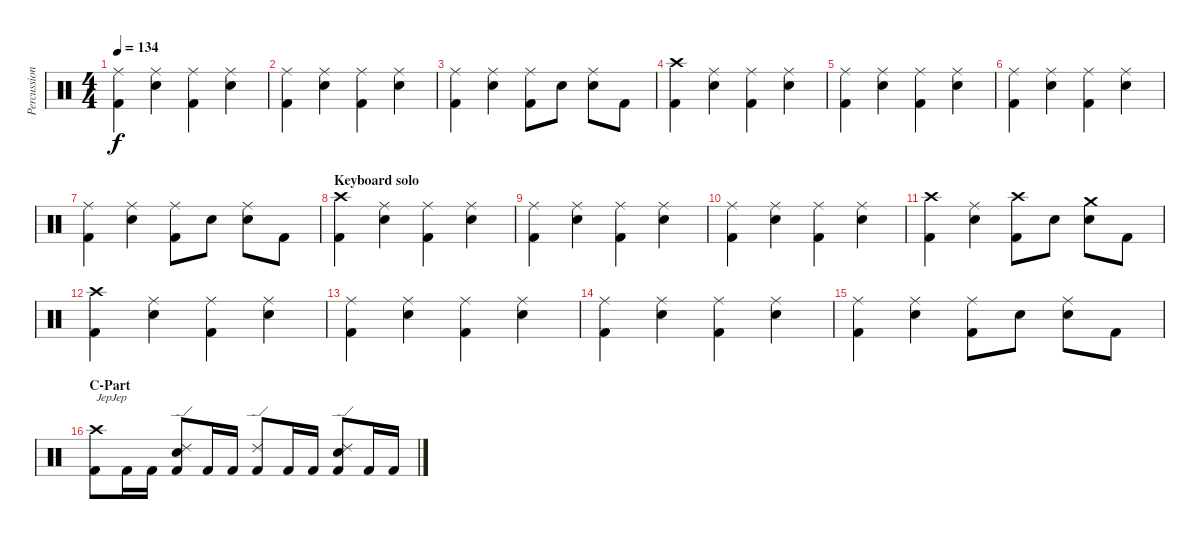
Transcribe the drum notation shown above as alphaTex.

\track ("Percussion" "Percussion") {instrument percussion}
\staff {score}
\articulation defaults
\ts (4 4)
\tempo 134
\clef neutral
\ks c
("Kick (hit) 2" "Ride (middle)").4{dy f} ("Snare (hit) 2" "Ride (middle)").4 ("Kick (hit) 2" "Ride (middle)").4 ("Snare (hit) 2" "Ride (middle)").4 |
("Kick (hit) 2" "Ride (middle)").4 ("Snare (hit) 2" "Ride (middle)").4 ("Kick (hit) 2" "Ride (middle)").4 ("Snare (hit) 2" "Ride (middle)").4 |
("Kick (hit) 2" "Ride (middle)").4 ("Snare (hit) 2" "Ride (middle)").4 ("Kick (hit) 2" "Ride (middle)").8 "Snare (hit) 2".8 ("Snare (hit) 2" "Ride (middle)").8 "Kick (hit) 2".8 |
("Kick (hit) 2" "Crash high (hit)").4 ("Snare (hit) 2" "Ride (middle)").4 ("Kick (hit) 2" "Ride (middle)").4 ("Snare (hit) 2" "Ride (middle)").4 |
("Kick (hit) 2" "Ride (middle)").4 ("Snare (hit) 2" "Ride (middle)").4 ("Kick (hit) 2" "Ride (middle)").4 ("Snare (hit) 2" "Ride (middle)").4 |
("Kick (hit) 2" "Ride (middle)").4 ("Snare (hit) 2" "Ride (middle)").4 ("Kick (hit) 2" "Ride (middle)").4 ("Snare (hit) 2" "Ride (middle)").4 |
("Kick (hit) 2" "Ride (middle)").4 ("Snare (hit) 2" "Ride (middle)").4 ("Kick (hit) 2" "Ride (middle)").8 "Snare (hit) 2".8 ("Snare (hit) 2" "Ride (middle)").8 "Kick (hit) 2".8 |
\section ("" "Keyboard solo")
("Kick (hit) 2" "Crash high (hit)").4 ("Snare (hit) 2" "Ride (middle)").4 ("Kick (hit) 2" "Ride (middle)").4 ("Snare (hit) 2" "Ride (middle)").4 |
("Kick (hit) 2" "Ride (middle)").4 ("Snare (hit) 2" "Ride (middle)").4 ("Kick (hit) 2" "Ride (middle)").4 ("Snare (hit) 2" "Ride (middle)").4 |
("Kick (hit) 2" "Ride (middle)").4 ("Snare (hit) 2" "Ride (middle)").4 ("Kick (hit) 2" "Ride (middle)").4 ("Snare (hit) 2" "Ride (middle)").4 |
("Kick (hit) 2" "Crash high (hit)").4 ("Snare (hit) 2" "Ride (middle)").4 ("Kick (hit) 2" "Crash high (hit)").8 "Snare (hit) 2".8 ("Snare (hit) 2" "Crash medium (hit)").8 "Kick (hit) 2".8 |
("Kick (hit) 2" "Crash high (hit)").4 ("Snare (hit) 2" "Ride (middle)").4 ("Kick (hit) 2" "Ride (middle)").4 ("Snare (hit) 2" "Ride (middle)").4 |
("Kick (hit) 2" "Ride (middle)").4 ("Snare (hit) 2" "Ride (middle)").4 ("Kick (hit) 2" "Ride (middle)").4 ("Snare (hit) 2" "Ride (middle)").4 |
("Kick (hit) 2" "Ride (middle)").4 ("Snare (hit) 2" "Ride (middle)").4 ("Kick (hit) 2" "Ride (middle)").4 ("Snare (hit) 2" "Ride (middle)").4 |
("Kick (hit) 2" "Ride (middle)").4 ("Snare (hit) 2" "Ride (middle)").4 ("Kick (hit) 2" "Ride (middle)").8 "Snare (hit) 2".8 ("Snare (hit) 2" "Ride (middle)").8 "Kick (hit) 2".8 |
\section ("" "C-Part")
("Kick (hit) 2" "Crash high (hit)").8{txt "JepJep"} "Kick (hit) 2".16 "Kick (hit) 2".16 ("Kick (hit) 2" "Snare (hit) 2" "Ride (edge) 2").8 "Kick (hit) 2".16 "Kick (hit) 2".16 ("Kick (hit) 2" "Ride (edge) 2").8 "Kick (hit) 2".16 "Kick (hit) 2".16 ("Kick (hit) 2" "Snare (hit) 2" "Ride (edge) 2").8 "Kick (hit) 2".16 "Kick (hit) 2".16
